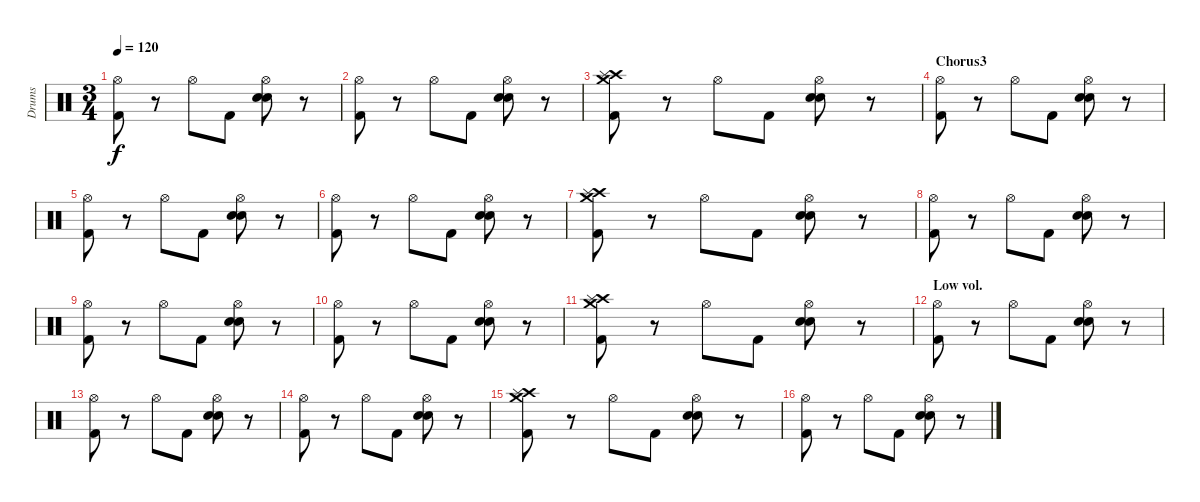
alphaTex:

\track ("Drums" "Drums") {instrument percussion}
\staff {score}
\articulation defaults
\ts (3 4)
\tempo 120
\clef neutral
\ks c
("Kick (hit) 2" "Hi-Hat (open)").8{dy f} r.8 "Hi-Hat (open)".8 "Kick (hit) 2".8 ("Electric Snare (hit)" "Electric Snare (hit)" "Hi-Hat (open)").8 r.8 |
("Kick (hit) 2" "Hi-Hat (open)").8 r.8 "Hi-Hat (open)".8 "Kick (hit) 2".8 ("Electric Snare (hit)" "Electric Snare (hit)" "Hi-Hat (open)").8 r.8 |
("Kick (hit) 2" "Crash medium (hit)" "Crash high (hit)" "Splash (hit)").8 r.8 "Hi-Hat (open)".8 "Kick (hit) 2".8 ("Electric Snare (hit)" "Electric Snare (hit)" "Hi-Hat (open)").8 r.8 |
\section ("" "Chorus3")
("Kick (hit) 2" "Hi-Hat (open)").8 r.8 "Hi-Hat (open)".8 "Kick (hit) 2".8 ("Electric Snare (hit)" "Electric Snare (hit)" "Hi-Hat (open)").8 r.8 |
("Kick (hit) 2" "Hi-Hat (open)").8 r.8 "Hi-Hat (open)".8 "Kick (hit) 2".8 ("Electric Snare (hit)" "Electric Snare (hit)" "Hi-Hat (open)").8 r.8 |
("Kick (hit) 2" "Hi-Hat (open)").8 r.8 "Hi-Hat (open)".8 "Kick (hit) 2".8 ("Electric Snare (hit)" "Electric Snare (hit)" "Hi-Hat (open)").8 r.8 |
("Kick (hit) 2" "Crash medium (hit)" "Crash high (hit)" "Splash (hit)").8 r.8 "Hi-Hat (open)".8 "Kick (hit) 2".8 ("Electric Snare (hit)" "Electric Snare (hit)" "Hi-Hat (open)").8 r.8 |
("Kick (hit) 2" "Hi-Hat (open)").8 r.8 "Hi-Hat (open)".8 "Kick (hit) 2".8 ("Electric Snare (hit)" "Electric Snare (hit)" "Hi-Hat (open)").8 r.8 |
("Kick (hit) 2" "Hi-Hat (open)").8 r.8 "Hi-Hat (open)".8 "Kick (hit) 2".8 ("Electric Snare (hit)" "Electric Snare (hit)" "Hi-Hat (open)").8 r.8 |
("Kick (hit) 2" "Hi-Hat (open)").8 r.8 "Hi-Hat (open)".8 "Kick (hit) 2".8 ("Electric Snare (hit)" "Electric Snare (hit)" "Hi-Hat (open)").8 r.8 |
("Kick (hit) 2" "Crash medium (hit)" "Crash high (hit)" "Splash (hit)").8 r.8 "Hi-Hat (open)".8 "Kick (hit) 2".8 ("Electric Snare (hit)" "Electric Snare (hit)" "Hi-Hat (open)").8 r.8 |
\section ("" "Low vol.")
("Kick (hit) 2" "Hi-Hat (open)").8 r.8 "Hi-Hat (open)".8 "Kick (hit) 2".8 ("Electric Snare (hit)" "Electric Snare (hit)" "Hi-Hat (open)").8 r.8 |
("Kick (hit) 2" "Hi-Hat (open)").8 r.8 "Hi-Hat (open)".8 "Kick (hit) 2".8 ("Electric Snare (hit)" "Electric Snare (hit)" "Hi-Hat (open)").8 r.8 |
("Kick (hit) 2" "Hi-Hat (open)").8 r.8 "Hi-Hat (open)".8 "Kick (hit) 2".8 ("Electric Snare (hit)" "Electric Snare (hit)" "Hi-Hat (open)").8 r.8 |
("Kick (hit) 2" "Crash medium (hit)" "Crash high (hit)" "Splash (hit)").8 r.8 "Hi-Hat (open)".8 "Kick (hit) 2".8 ("Electric Snare (hit)" "Electric Snare (hit)" "Hi-Hat (open)").8 r.8 |
("Kick (hit) 2" "Hi-Hat (open)").8 r.8 "Hi-Hat (open)".8 "Kick (hit) 2".8 ("Electric Snare (hit)" "Electric Snare (hit)" "Hi-Hat (open)").8 r.8
